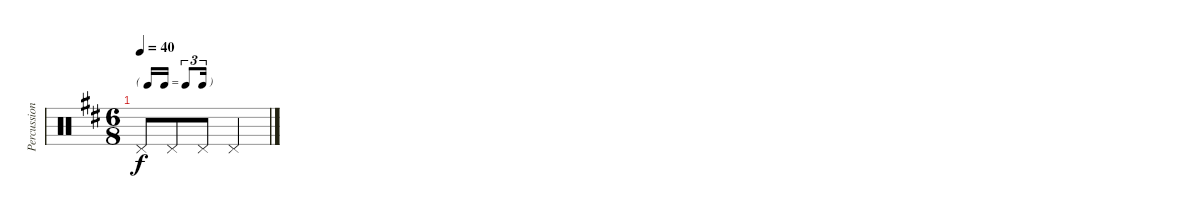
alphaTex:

\track ("Percussion" "Percussion") {instrument percussion}
\staff {score}
\articulation defaults
\ts (6 8)
\tf triplet16th
\tempo 40
\clef neutral
\ks bminor "Pedal Hi-Hat (hit)".8{dy f} "Pedal Hi-Hat (hit)".8 "Pedal Hi-Hat (hit)".8 "Pedal Hi-Hat (hit)".4
